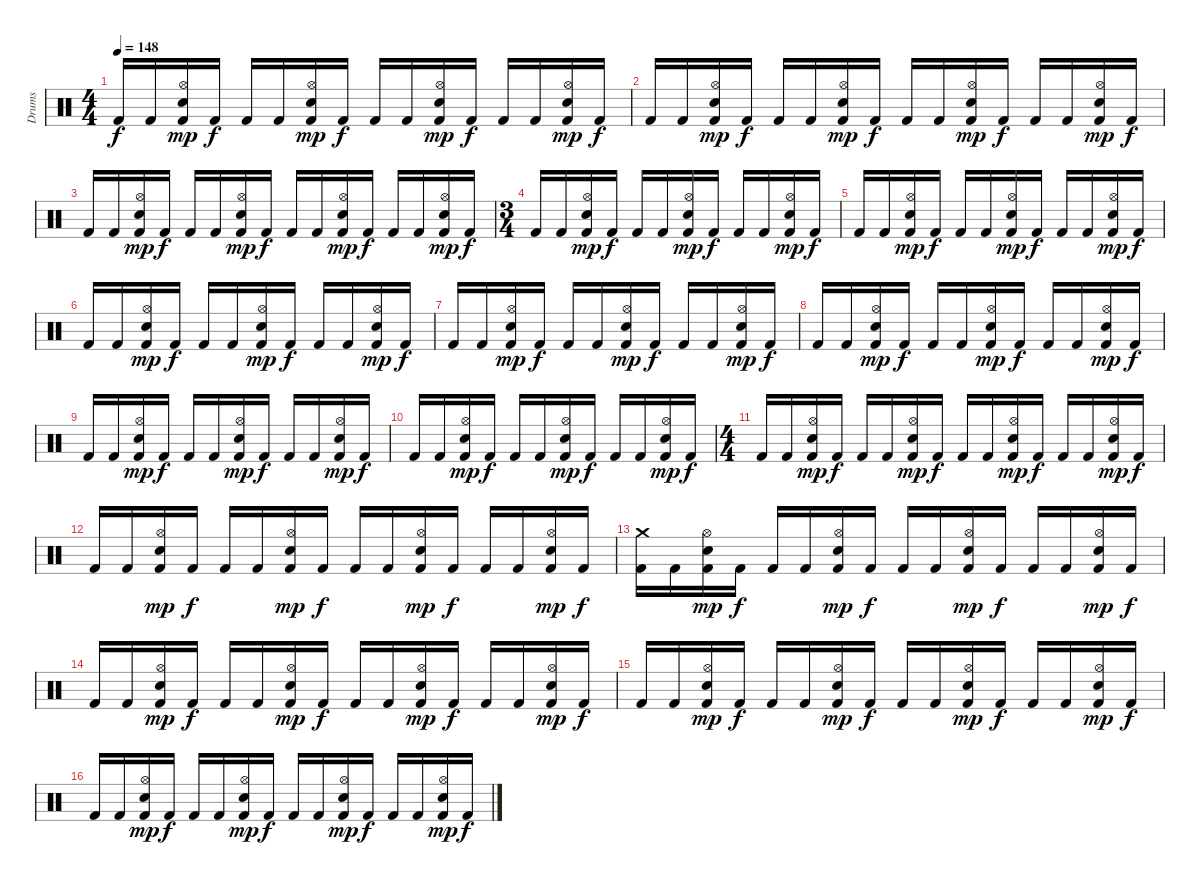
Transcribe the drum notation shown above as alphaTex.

\track ("Drums" "Drums") {instrument percussion}
\staff
\articulation defaults
\ts (4 4)
\tempo 148
\clef neutral
\ks c "Kick (hit) 2".16{dy f} "Kick (hit) 2".16
("Hi-Hat (open)" "Kick (hit) 2" "Electric Snare (hit)").16{dy mp} "Kick (hit) 2".16{dy f} "Kick (hit) 2".16 "Kick (hit) 2".16 ("Hi-Hat (open)" "Kick (hit) 2" "Electric Snare (hit)").16{dy mp} "Kick (hit) 2".16{dy f} "Kick (hit) 2".16 "Kick (hit) 2".16 ("Hi-Hat (open)" "Kick (hit) 2" "Electric Snare (hit)").16{dy mp} "Kick (hit) 2".16{dy f} "Kick (hit) 2".16 "Kick (hit) 2".16 ("Hi-Hat (open)" "Kick (hit) 2" "Electric Snare (hit)").16{dy mp} "Kick (hit) 2".16{dy f} |
"Kick (hit) 2".16 "Kick (hit) 2".16 ("Hi-Hat (open)" "Kick (hit) 2" "Electric Snare (hit)").16{dy mp} "Kick (hit) 2".16{dy f} "Kick (hit) 2".16 "Kick (hit) 2".16 ("Hi-Hat (open)" "Kick (hit) 2" "Electric Snare (hit)").16{dy mp} "Kick (hit) 2".16{dy f} "Kick (hit) 2".16 "Kick (hit) 2".16 ("Hi-Hat (open)" "Kick (hit) 2" "Electric Snare (hit)").16{dy mp} "Kick (hit) 2".16{dy f} "Kick (hit) 2".16 "Kick (hit) 2".16 ("Hi-Hat (open)" "Kick (hit) 2" "Electric Snare (hit)").16{dy mp} "Kick (hit) 2".16{dy f} |
"Kick (hit) 2".16 "Kick (hit) 2".16 ("Hi-Hat (open)" "Kick (hit) 2" "Electric Snare (hit)").16{dy mp} "Kick (hit) 2".16{dy f} "Kick (hit) 2".16 "Kick (hit) 2".16 ("Hi-Hat (open)" "Kick (hit) 2" "Electric Snare (hit)").16{dy mp} "Kick (hit) 2".16{dy f} "Kick (hit) 2".16 "Kick (hit) 2".16 ("Hi-Hat (open)" "Kick (hit) 2" "Electric Snare (hit)").16{dy mp} "Kick (hit) 2".16{dy f} "Kick (hit) 2".16 "Kick (hit) 2".16 ("Hi-Hat (open)" "Kick (hit) 2" "Electric Snare (hit)").16{dy mp} "Kick (hit) 2".16{dy f} |
\ts (3 4)
"Kick (hit) 2".16 "Kick (hit) 2".16 ("Hi-Hat (open)" "Kick (hit) 2" "Electric Snare (hit)").16{dy mp} "Kick (hit) 2".16{dy f} "Kick (hit) 2".16 "Kick (hit) 2".16 ("Hi-Hat (open)" "Kick (hit) 2" "Electric Snare (hit)").16{dy mp} "Kick (hit) 2".16{dy f} "Kick (hit) 2".16 "Kick (hit) 2".16 ("Hi-Hat (open)" "Kick (hit) 2" "Electric Snare (hit)").16{dy mp} "Kick (hit) 2".16{dy f} |
"Kick (hit) 2".16 "Kick (hit) 2".16 ("Hi-Hat (open)" "Kick (hit) 2" "Electric Snare (hit)").16{dy mp} "Kick (hit) 2".16{dy f} "Kick (hit) 2".16 "Kick (hit) 2".16 ("Hi-Hat (open)" "Kick (hit) 2" "Electric Snare (hit)").16{dy mp} "Kick (hit) 2".16{dy f} "Kick (hit) 2".16 "Kick (hit) 2".16 ("Hi-Hat (open)" "Kick (hit) 2" "Electric Snare (hit)").16{dy mp} "Kick (hit) 2".16{dy f} |
"Kick (hit) 2".16 "Kick (hit) 2".16 ("Hi-Hat (open)" "Kick (hit) 2" "Electric Snare (hit)").16{dy mp} "Kick (hit) 2".16{dy f} "Kick (hit) 2".16 "Kick (hit) 2".16 ("Hi-Hat (open)" "Kick (hit) 2" "Electric Snare (hit)").16{dy mp} "Kick (hit) 2".16{dy f} "Kick (hit) 2".16 "Kick (hit) 2".16 ("Hi-Hat (open)" "Kick (hit) 2" "Electric Snare (hit)").16{dy mp} "Kick (hit) 2".16{dy f} |
"Kick (hit) 2".16 "Kick (hit) 2".16 ("Hi-Hat (open)" "Kick (hit) 2" "Electric Snare (hit)").16{dy mp} "Kick (hit) 2".16{dy f} "Kick (hit) 2".16 "Kick (hit) 2".16 ("Hi-Hat (open)" "Kick (hit) 2" "Electric Snare (hit)").16{dy mp} "Kick (hit) 2".16{dy f} "Kick (hit) 2".16 "Kick (hit) 2".16 ("Hi-Hat (open)" "Kick (hit) 2" "Electric Snare (hit)").16{dy mp} "Kick (hit) 2".16{dy f} |
"Kick (hit) 2".16 "Kick (hit) 2".16 ("Hi-Hat (open)" "Kick (hit) 2" "Electric Snare (hit)").16{dy mp} "Kick (hit) 2".16{dy f} "Kick (hit) 2".16 "Kick (hit) 2".16 ("Hi-Hat (open)" "Kick (hit) 2" "Electric Snare (hit)").16{dy mp} "Kick (hit) 2".16{dy f} "Kick (hit) 2".16 "Kick (hit) 2".16 ("Hi-Hat (open)" "Kick (hit) 2" "Electric Snare (hit)").16{dy mp} "Kick (hit) 2".16{dy f} |
"Kick (hit) 2".16 "Kick (hit) 2".16 ("Hi-Hat (open)" "Kick (hit) 2" "Electric Snare (hit)").16{dy mp} "Kick (hit) 2".16{dy f} "Kick (hit) 2".16 "Kick (hit) 2".16 ("Hi-Hat (open)" "Kick (hit) 2" "Electric Snare (hit)").16{dy mp} "Kick (hit) 2".16{dy f} "Kick (hit) 2".16 "Kick (hit) 2".16 ("Hi-Hat (open)" "Kick (hit) 2" "Electric Snare (hit)").16{dy mp} "Kick (hit) 2".16{dy f} |
"Kick (hit) 2".16 "Kick (hit) 2".16 ("Hi-Hat (open)" "Kick (hit) 2" "Electric Snare (hit)").16{dy mp} "Kick (hit) 2".16{dy f} "Kick (hit) 2".16 "Kick (hit) 2".16 ("Hi-Hat (open)" "Kick (hit) 2" "Electric Snare (hit)").16{dy mp} "Kick (hit) 2".16{dy f} "Kick (hit) 2".16 "Kick (hit) 2".16 ("Hi-Hat (open)" "Kick (hit) 2" "Electric Snare (hit)").16{dy mp} "Kick (hit) 2".16{dy f} |
\ts (4 4)
"Kick (hit) 2".16 "Kick (hit) 2".16 ("Hi-Hat (open)" "Kick (hit) 2" "Electric Snare (hit)").16{dy mp} "Kick (hit) 2".16{dy f} "Kick (hit) 2".16 "Kick (hit) 2".16 ("Hi-Hat (open)" "Kick (hit) 2" "Electric Snare (hit)").16{dy mp} "Kick (hit) 2".16{dy f} "Kick (hit) 2".16 "Kick (hit) 2".16 ("Hi-Hat (open)" "Kick (hit) 2" "Electric Snare (hit)").16{dy mp} "Kick (hit) 2".16{dy f} "Kick (hit) 2".16 "Kick (hit) 2".16 ("Hi-Hat (open)" "Kick (hit) 2" "Electric Snare (hit)").16{dy mp} "Kick (hit) 2".16{dy f} |
"Kick (hit) 2".16 "Kick (hit) 2".16 ("Hi-Hat (open)" "Kick (hit) 2" "Electric Snare (hit)").16{dy mp} "Kick (hit) 2".16{dy f} "Kick (hit) 2".16 "Kick (hit) 2".16 ("Hi-Hat (open)" "Kick (hit) 2" "Electric Snare (hit)").16{dy mp} "Kick (hit) 2".16{dy f} "Kick (hit) 2".16 "Kick (hit) 2".16 ("Hi-Hat (open)" "Kick (hit) 2" "Electric Snare (hit)").16{dy mp} "Kick (hit) 2".16{dy f} "Kick (hit) 2".16 "Kick (hit) 2".16 ("Hi-Hat (open)" "Kick (hit) 2" "Electric Snare (hit)").16{dy mp} "Kick (hit) 2".16{dy f} |
("Crash medium (hit)" "Kick (hit) 2").16 "Kick (hit) 2".16 ("Hi-Hat (open)" "Kick (hit) 2" "Electric Snare (hit)").16{dy mp} "Kick (hit) 2".16{dy f} "Kick (hit) 2".16 "Kick (hit) 2".16 ("Hi-Hat (open)" "Kick (hit) 2" "Electric Snare (hit)").16{dy mp} "Kick (hit) 2".16{dy f} "Kick (hit) 2".16 "Kick (hit) 2".16 ("Hi-Hat (open)" "Kick (hit) 2" "Electric Snare (hit)").16{dy mp} "Kick (hit) 2".16{dy f} "Kick (hit) 2".16 "Kick (hit) 2".16 ("Hi-Hat (open)" "Kick (hit) 2" "Electric Snare (hit)").16{dy mp} "Kick (hit) 2".16{dy f} |
"Kick (hit) 2".16 "Kick (hit) 2".16 ("Hi-Hat (open)" "Kick (hit) 2" "Electric Snare (hit)").16{dy mp} "Kick (hit) 2".16{dy f} "Kick (hit) 2".16 "Kick (hit) 2".16 ("Hi-Hat (open)" "Kick (hit) 2" "Electric Snare (hit)").16{dy mp} "Kick (hit) 2".16{dy f} "Kick (hit) 2".16 "Kick (hit) 2".16 ("Hi-Hat (open)" "Kick (hit) 2" "Electric Snare (hit)").16{dy mp} "Kick (hit) 2".16{dy f} "Kick (hit) 2".16 "Kick (hit) 2".16 ("Hi-Hat (open)" "Kick (hit) 2" "Electric Snare (hit)").16{dy mp} "Kick (hit) 2".16{dy f} |
"Kick (hit) 2".16 "Kick (hit) 2".16 ("Hi-Hat (open)" "Kick (hit) 2" "Electric Snare (hit)").16{dy mp} "Kick (hit) 2".16{dy f} "Kick (hit) 2".16 "Kick (hit) 2".16 ("Hi-Hat (open)" "Kick (hit) 2" "Electric Snare (hit)").16{dy mp} "Kick (hit) 2".16{dy f} "Kick (hit) 2".16 "Kick (hit) 2".16 ("Hi-Hat (open)" "Kick (hit) 2" "Electric Snare (hit)").16{dy mp} "Kick (hit) 2".16{dy f} "Kick (hit) 2".16 "Kick (hit) 2".16 ("Hi-Hat (open)" "Kick (hit) 2" "Electric Snare (hit)").16{dy mp} "Kick (hit) 2".16{dy f} |
"Kick (hit) 2".16 "Kick (hit) 2".16 ("Hi-Hat (open)" "Kick (hit) 2" "Electric Snare (hit)").16{dy mp} "Kick (hit) 2".16{dy f} "Kick (hit) 2".16 "Kick (hit) 2".16 ("Hi-Hat (open)" "Kick (hit) 2" "Electric Snare (hit)").16{dy mp} "Kick (hit) 2".16{dy f} "Kick (hit) 2".16 "Kick (hit) 2".16 ("Hi-Hat (open)" "Kick (hit) 2" "Electric Snare (hit)").16{dy mp} "Kick (hit) 2".16{dy f} "Kick (hit) 2".16 "Kick (hit) 2".16 ("Hi-Hat (open)" "Kick (hit) 2" "Electric Snare (hit)").16{dy mp} "Kick (hit) 2".16{dy f}
